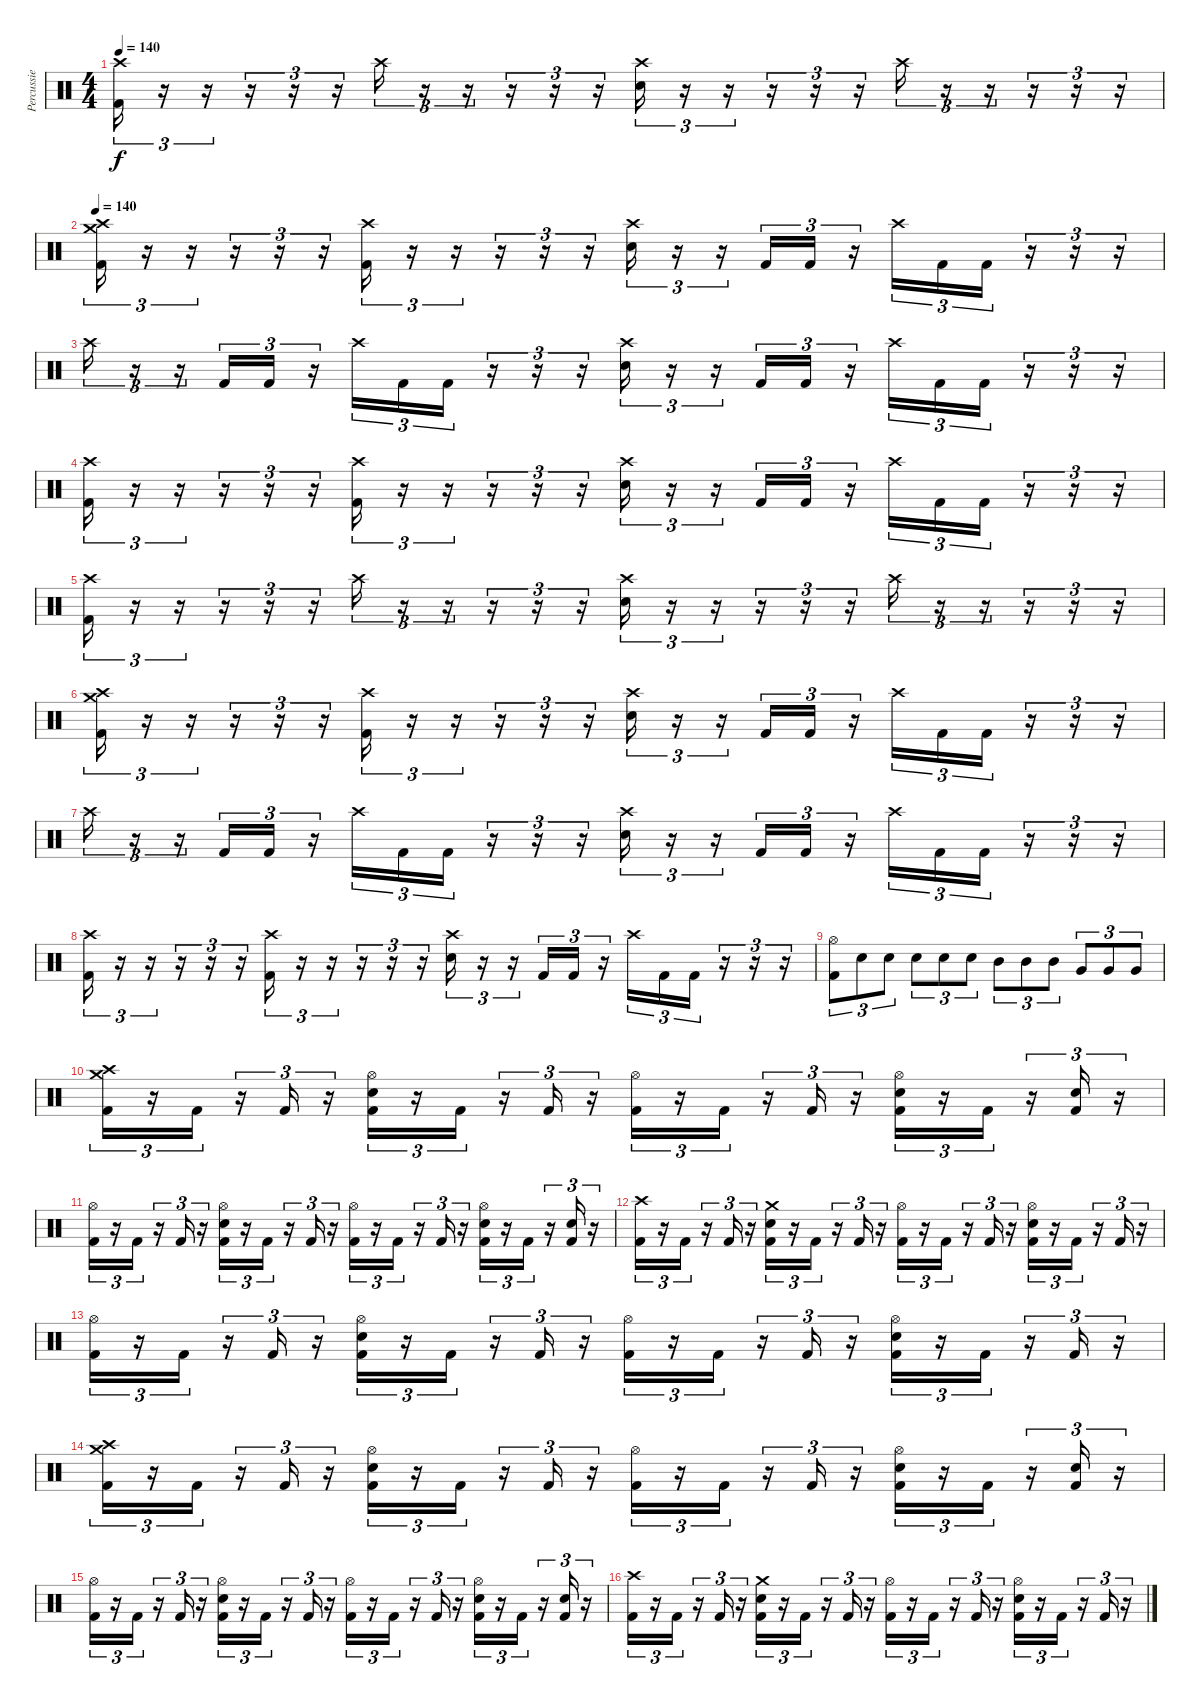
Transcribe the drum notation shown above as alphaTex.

\track ("Percussie" "Percussie") {instrument percussion}
\staff {score}
\articulation defaults
\ts (4 4)
\tempo 140
\clef neutral
\ks c
("Crash high (hit)" "Kick (hit) 2").16{tu (3 2) dy f} r.16{tu (3 2)} r.16{tu (3 2)} r.16{tu (3 2)} r.16{tu (3 2)} r.16{tu (3 2)} "Crash high (hit)".16{tu (3 2)} r.16{tu (3 2)} r.16{tu (3 2)} r.16{tu (3 2)} r.16{tu (3 2)} r.16{tu (3 2)} ("Crash high (hit)" "Electric Snare (hit)").16{tu (3 2)} r.16{tu (3 2)} r.16{tu (3 2)} r.16{tu (3 2)} r.16{tu (3 2)} r.16{tu (3 2)} "Crash high (hit)".16{tu (3 2)} r.16{tu (3 2)} r.16{tu (3 2)} r.16{tu (3 2)} r.16{tu (3 2)} r.16{tu (3 2)} |
\tempo 140
("Crash high (hit)" "Crash medium (hit)" "Kick (hit) 2").16{tu (3 2)} r.16{tu (3 2)} r.16{tu (3 2)} r.16{tu (3 2)} r.16{tu (3 2)} r.16{tu (3 2)} ("Crash high (hit)" "Kick (hit) 2").16{tu (3 2)} r.16{tu (3 2)} r.16{tu (3 2)} r.16{tu (3 2)} r.16{tu (3 2)} r.16{tu (3 2)} ("Crash high (hit)" "Electric Snare (hit)").16{tu (3 2)} r.16{tu (3 2)} r.16{tu (3 2)} "Kick (hit) 2".16{tu (3 2)} "Kick (hit) 2".16{tu (3 2)} r.16{tu (3 2)} "Crash high (hit)".16{tu (3 2)} "Kick (hit) 2".16{tu (3 2)} "Kick (hit) 2".16{tu (3 2)} r.16{tu (3 2)} r.16{tu (3 2)} r.16{tu (3 2)} |
"Crash high (hit)".16{tu (3 2)} r.16{tu (3 2)} r.16{tu (3 2)} "Kick (hit) 2".16{tu (3 2)} "Kick (hit) 2".16{tu (3 2)} r.16{tu (3 2)} "Crash high (hit)".16{tu (3 2)} "Kick (hit) 2".16{tu (3 2)} "Kick (hit) 2".16{tu (3 2)} r.16{tu (3 2)} r.16{tu (3 2)} r.16{tu (3 2)} ("Crash high (hit)" "Electric Snare (hit)").16{tu (3 2)} r.16{tu (3 2)} r.16{tu (3 2)} "Kick (hit) 2".16{tu (3 2)} "Kick (hit) 2".16{tu (3 2)} r.16{tu (3 2)} "Crash high (hit)".16{tu (3 2)} "Kick (hit) 2".16{tu (3 2)} "Kick (hit) 2".16{tu (3 2)} r.16{tu (3 2)} r.16{tu (3 2)} r.16{tu (3 2)} |
("Crash high (hit)" "Kick (hit) 2").16{tu (3 2)} r.16{tu (3 2)} r.16{tu (3 2)} r.16{tu (3 2)} r.16{tu (3 2)} r.16{tu (3 2)} ("Crash high (hit)" "Kick (hit) 2").16{tu (3 2)} r.16{tu (3 2)} r.16{tu (3 2)} r.16{tu (3 2)} r.16{tu (3 2)} r.16{tu (3 2)} ("Crash high (hit)" "Electric Snare (hit)").16{tu (3 2)} r.16{tu (3 2)} r.16{tu (3 2)} "Kick (hit) 2".16{tu (3 2)} "Kick (hit) 2".16{tu (3 2)} r.16{tu (3 2)} "Crash high (hit)".16{tu (3 2)} "Kick (hit) 2".16{tu (3 2)} "Kick (hit) 2".16{tu (3 2)} r.16{tu (3 2)} r.16{tu (3 2)} r.16{tu (3 2)} |
("Crash high (hit)" "Kick (hit) 2").16{tu (3 2)} r.16{tu (3 2)} r.16{tu (3 2)} r.16{tu (3 2)} r.16{tu (3 2)} r.16{tu (3 2)} "Crash high (hit)".16{tu (3 2)} r.16{tu (3 2)} r.16{tu (3 2)} r.16{tu (3 2)} r.16{tu (3 2)} r.16{tu (3 2)} ("Crash high (hit)" "Electric Snare (hit)").16{tu (3 2)} r.16{tu (3 2)} r.16{tu (3 2)} r.16{tu (3 2)} r.16{tu (3 2)} r.16{tu (3 2)} "Crash high (hit)".16{tu (3 2)} r.16{tu (3 2)} r.16{tu (3 2)} r.16{tu (3 2)} r.16{tu (3 2)} r.16{tu (3 2)} |
("Crash high (hit)" "Crash medium (hit)" "Kick (hit) 2").16{tu (3 2)} r.16{tu (3 2)} r.16{tu (3 2)} r.16{tu (3 2)} r.16{tu (3 2)} r.16{tu (3 2)} ("Crash high (hit)" "Kick (hit) 2").16{tu (3 2)} r.16{tu (3 2)} r.16{tu (3 2)} r.16{tu (3 2)} r.16{tu (3 2)} r.16{tu (3 2)} ("Crash high (hit)" "Electric Snare (hit)").16{tu (3 2)} r.16{tu (3 2)} r.16{tu (3 2)} "Kick (hit) 2".16{tu (3 2)} "Kick (hit) 2".16{tu (3 2)} r.16{tu (3 2)} "Crash high (hit)".16{tu (3 2)} "Kick (hit) 2".16{tu (3 2)} "Kick (hit) 2".16{tu (3 2)} r.16{tu (3 2)} r.16{tu (3 2)} r.16{tu (3 2)} |
"Crash high (hit)".16{tu (3 2)} r.16{tu (3 2)} r.16{tu (3 2)} "Kick (hit) 2".16{tu (3 2)} "Kick (hit) 2".16{tu (3 2)} r.16{tu (3 2)} "Crash high (hit)".16{tu (3 2)} "Kick (hit) 2".16{tu (3 2)} "Kick (hit) 2".16{tu (3 2)} r.16{tu (3 2)} r.16{tu (3 2)} r.16{tu (3 2)} ("Crash high (hit)" "Electric Snare (hit)").16{tu (3 2)} r.16{tu (3 2)} r.16{tu (3 2)} "Kick (hit) 2".16{tu (3 2)} "Kick (hit) 2".16{tu (3 2)} r.16{tu (3 2)} "Crash high (hit)".16{tu (3 2)} "Kick (hit) 2".16{tu (3 2)} "Kick (hit) 2".16{tu (3 2)} r.16{tu (3 2)} r.16{tu (3 2)} r.16{tu (3 2)} |
("Crash high (hit)" "Kick (hit) 2").16{tu (3 2)} r.16{tu (3 2)} r.16{tu (3 2)} r.16{tu (3 2)} r.16{tu (3 2)} r.16{tu (3 2)} ("Crash high (hit)" "Kick (hit) 2").16{tu (3 2)} r.16{tu (3 2)} r.16{tu (3 2)} r.16{tu (3 2)} r.16{tu (3 2)} r.16{tu (3 2)} ("Crash high (hit)" "Electric Snare (hit)").16{tu (3 2)} r.16{tu (3 2)} r.16{tu (3 2)} "Kick (hit) 2".16{tu (3 2)} "Kick (hit) 2".16{tu (3 2)} r.16{tu (3 2)} "Crash high (hit)".16{tu (3 2)} "Kick (hit) 2".16{tu (3 2)} "Kick (hit) 2".16{tu (3 2)} r.16{tu (3 2)} r.16{tu (3 2)} r.16{tu (3 2)} |
("Hi-Hat (open)" "Kick (hit) 2").8{tu (3 2)} "Electric Snare (hit)".8{tu (3 2)} "Electric Snare (hit)".8{tu (3 2)} "Electric Snare (hit)".8{tu (3 2)} "Electric Snare (hit)".8{tu (3 2)} "Electric Snare (hit)".8{tu (3 2)} "Mid Tom (hit)".8{tu (3 2)} "Mid Tom (hit)".8{tu (3 2)} "Mid Tom (hit)".8{tu (3 2)} "Very Low Tom (hit)".8{tu (3 2)} "Very Low Tom (hit)".8{tu (3 2)} "Very Low Tom (hit)".8{tu (3 2)} |
("Crash high (hit)" "Crash medium (hit)" "Kick (hit) 2").16{tu (3 2)} r.16{tu (3 2)} "Kick (hit) 2".16{tu (3 2)} r.16{tu (3 2)} "Kick (hit) 2".16{tu (3 2)} r.16{tu (3 2)} ("Hi-Hat (open)" "Electric Snare (hit)" "Kick (hit) 2").16{tu (3 2)} r.16{tu (3 2)} "Kick (hit) 2".16{tu (3 2)} r.16{tu (3 2)} "Kick (hit) 2".16{tu (3 2)} r.16{tu (3 2)} ("Hi-Hat (open)" "Kick (hit) 2").16{tu (3 2)} r.16{tu (3 2)} "Kick (hit) 2".16{tu (3 2)} r.16{tu (3 2)} "Kick (hit) 2".16{tu (3 2)} r.16{tu (3 2)} ("Hi-Hat (open)" "Electric Snare (hit)" "Kick (hit) 2").16{tu (3 2)} r.16{tu (3 2)} "Kick (hit) 2".16{tu (3 2)} r.16{tu (3 2)} ("Electric Snare (hit)" "Kick (hit) 2").16{tu (3 2)} r.16{tu (3 2)} |
("Hi-Hat (open)" "Kick (hit) 2").16{tu (3 2)} r.16{tu (3 2)} "Kick (hit) 2".16{tu (3 2)} r.16{tu (3 2)} "Kick (hit) 2".16{tu (3 2)} r.16{tu (3 2)} ("Hi-Hat (open)" "Electric Snare (hit)" "Kick (hit) 2").16{tu (3 2)} r.16{tu (3 2)} "Kick (hit) 2".16{tu (3 2)} r.16{tu (3 2)} "Kick (hit) 2".16{tu (3 2)} r.16{tu (3 2)} ("Hi-Hat (open)" "Kick (hit) 2").16{tu (3 2)} r.16{tu (3 2)} "Kick (hit) 2".16{tu (3 2)} r.16{tu (3 2)} "Kick (hit) 2".16{tu (3 2)} r.16{tu (3 2)} ("Hi-Hat (open)" "Electric Snare (hit)" "Kick (hit) 2").16{tu (3 2)} r.16{tu (3 2)} "Kick (hit) 2".16{tu (3 2)} r.16{tu (3 2)} ("Electric Snare (hit)" "Kick (hit) 2").16{tu (3 2)} r.16{tu (3 2)} |
("Crash high (hit)" "Kick (hit) 2").16{tu (3 2)} r.16{tu (3 2)} "Kick (hit) 2".16{tu (3 2)} r.16{tu (3 2)} "Kick (hit) 2".16{tu (3 2)} r.16{tu (3 2)} ("Crash medium (hit)" "Electric Snare (hit)" "Kick (hit) 2").16{tu (3 2)} r.16{tu (3 2)} "Kick (hit) 2".16{tu (3 2)} r.16{tu (3 2)} "Kick (hit) 2".16{tu (3 2)} r.16{tu (3 2)} ("Hi-Hat (open)" "Kick (hit) 2").16{tu (3 2)} r.16{tu (3 2)} "Kick (hit) 2".16{tu (3 2)} r.16{tu (3 2)} "Kick (hit) 2".16{tu (3 2)} r.16{tu (3 2)} ("Hi-Hat (open)" "Electric Snare (hit)" "Kick (hit) 2").16{tu (3 2)} r.16{tu (3 2)} "Kick (hit) 2".16{tu (3 2)} r.16{tu (3 2)} "Kick (hit) 2".16{tu (3 2)} r.16{tu (3 2)} |
("Hi-Hat (open)" "Kick (hit) 2").16{tu (3 2)} r.16{tu (3 2)} "Kick (hit) 2".16{tu (3 2)} r.16{tu (3 2)} "Kick (hit) 2".16{tu (3 2)} r.16{tu (3 2)} ("Hi-Hat (open)" "Electric Snare (hit)" "Kick (hit) 2").16{tu (3 2)} r.16{tu (3 2)} "Kick (hit) 2".16{tu (3 2)} r.16{tu (3 2)} "Kick (hit) 2".16{tu (3 2)} r.16{tu (3 2)} ("Hi-Hat (open)" "Kick (hit) 2").16{tu (3 2)} r.16{tu (3 2)} "Kick (hit) 2".16{tu (3 2)} r.16{tu (3 2)} "Kick (hit) 2".16{tu (3 2)} r.16{tu (3 2)} ("Hi-Hat (open)" "Electric Snare (hit)" "Kick (hit) 2").16{tu (3 2)} r.16{tu (3 2)} "Kick (hit) 2".16{tu (3 2)} r.16{tu (3 2)} "Kick (hit) 2".16{tu (3 2)} r.16{tu (3 2)} |
("Crash high (hit)" "Crash medium (hit)" "Kick (hit) 2").16{tu (3 2)} r.16{tu (3 2)} "Kick (hit) 2".16{tu (3 2)} r.16{tu (3 2)} "Kick (hit) 2".16{tu (3 2)} r.16{tu (3 2)} ("Hi-Hat (open)" "Electric Snare (hit)" "Kick (hit) 2").16{tu (3 2)} r.16{tu (3 2)} "Kick (hit) 2".16{tu (3 2)} r.16{tu (3 2)} "Kick (hit) 2".16{tu (3 2)} r.16{tu (3 2)} ("Hi-Hat (open)" "Kick (hit) 2").16{tu (3 2)} r.16{tu (3 2)} "Kick (hit) 2".16{tu (3 2)} r.16{tu (3 2)} "Kick (hit) 2".16{tu (3 2)} r.16{tu (3 2)} ("Hi-Hat (open)" "Electric Snare (hit)" "Kick (hit) 2").16{tu (3 2)} r.16{tu (3 2)} "Kick (hit) 2".16{tu (3 2)} r.16{tu (3 2)} ("Electric Snare (hit)" "Kick (hit) 2").16{tu (3 2)} r.16{tu (3 2)} |
("Hi-Hat (open)" "Kick (hit) 2").16{tu (3 2)} r.16{tu (3 2)} "Kick (hit) 2".16{tu (3 2)} r.16{tu (3 2)} "Kick (hit) 2".16{tu (3 2)} r.16{tu (3 2)} ("Hi-Hat (open)" "Electric Snare (hit)" "Kick (hit) 2").16{tu (3 2)} r.16{tu (3 2)} "Kick (hit) 2".16{tu (3 2)} r.16{tu (3 2)} "Kick (hit) 2".16{tu (3 2)} r.16{tu (3 2)} ("Hi-Hat (open)" "Kick (hit) 2").16{tu (3 2)} r.16{tu (3 2)} "Kick (hit) 2".16{tu (3 2)} r.16{tu (3 2)} "Kick (hit) 2".16{tu (3 2)} r.16{tu (3 2)} ("Hi-Hat (open)" "Electric Snare (hit)" "Kick (hit) 2").16{tu (3 2)} r.16{tu (3 2)} "Kick (hit) 2".16{tu (3 2)} r.16{tu (3 2)} ("Electric Snare (hit)" "Kick (hit) 2").16{tu (3 2)} r.16{tu (3 2)} |
("Crash high (hit)" "Kick (hit) 2").16{tu (3 2)} r.16{tu (3 2)} "Kick (hit) 2".16{tu (3 2)} r.16{tu (3 2)} "Kick (hit) 2".16{tu (3 2)} r.16{tu (3 2)} ("Crash medium (hit)" "Electric Snare (hit)" "Kick (hit) 2").16{tu (3 2)} r.16{tu (3 2)} "Kick (hit) 2".16{tu (3 2)} r.16{tu (3 2)} "Kick (hit) 2".16{tu (3 2)} r.16{tu (3 2)} ("Hi-Hat (open)" "Kick (hit) 2").16{tu (3 2)} r.16{tu (3 2)} "Kick (hit) 2".16{tu (3 2)} r.16{tu (3 2)} "Kick (hit) 2".16{tu (3 2)} r.16{tu (3 2)} ("Hi-Hat (open)" "Electric Snare (hit)" "Kick (hit) 2").16{tu (3 2)} r.16{tu (3 2)} "Kick (hit) 2".16{tu (3 2)} r.16{tu (3 2)} "Kick (hit) 2".16{tu (3 2)} r.16{tu (3 2)}
